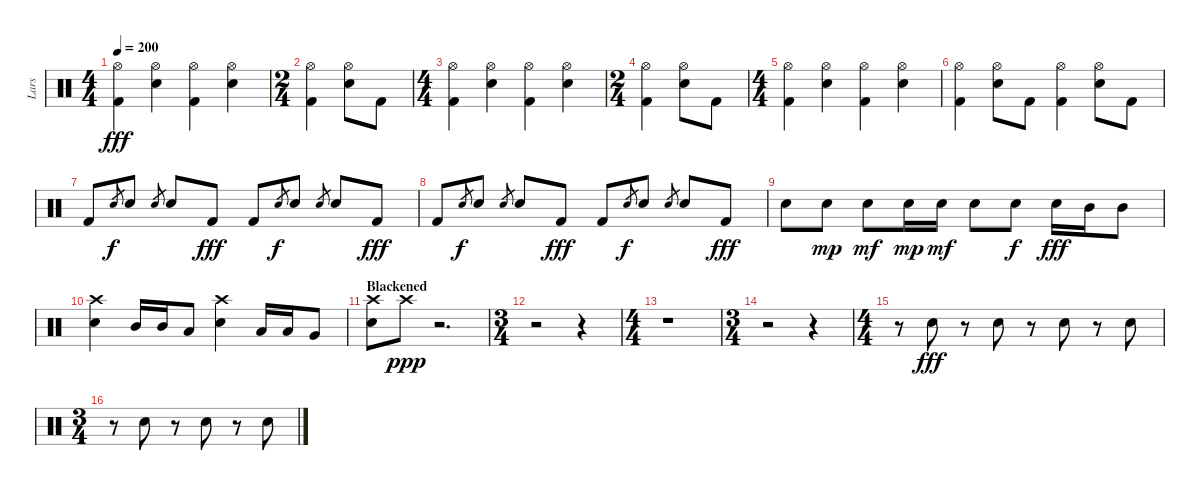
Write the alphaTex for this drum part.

\track ("Lars" "Lars") {instrument percussion}
\staff {score}
\articulation defaults
\ts (4 4)
\tempo 200
\clef neutral
\ks c
("Hi-Hat (open)" "Kick (hit) 2").4{dy fff} ("Hi-Hat (open)" "Snare (hit) 2").4 ("Hi-Hat (open)" "Kick (hit) 2").4 ("Hi-Hat (open)" "Snare (hit) 2").4 |
\ts (2 4)
("Hi-Hat (open)" "Kick (hit) 2").4 ("Hi-Hat (open)" "Snare (hit) 2").8 "Kick (hit) 2".8 |
\ts (4 4)
("Hi-Hat (open)" "Kick (hit) 2").4 ("Hi-Hat (open)" "Snare (hit) 2").4 ("Hi-Hat (open)" "Kick (hit) 2").4 ("Hi-Hat (open)" "Snare (hit) 2").4 |
\ts (2 4)
("Hi-Hat (open)" "Kick (hit) 2").4 ("Hi-Hat (open)" "Snare (hit) 2").8 "Kick (hit) 2".8 |
\ts (4 4)
("Hi-Hat (open)" "Kick (hit) 2").4 ("Hi-Hat (open)" "Snare (hit) 2").4 ("Hi-Hat (open)" "Kick (hit) 2").4 ("Hi-Hat (open)" "Snare (hit) 2").4 |
("Hi-Hat (open)" "Kick (hit) 2").4 ("Hi-Hat (open)" "Snare (hit) 2").8 "Kick (hit) 2".8 ("Hi-Hat (open)" "Kick (hit) 2").4 ("Hi-Hat (open)" "Snare (hit) 2").8 "Kick (hit) 2".8 |
"Kick (hit) 2".8 "Snare (hit) 2".8{gr dy f} "Snare (hit) 2".8 "Snare (hit) 2".8{gr} "Snare (hit) 2".8 "Kick (hit) 2".8{dy fff} "Kick (hit) 2".8 "Snare (hit) 2".8{gr dy f} "Snare (hit) 2".8 "Snare (hit) 2".8{gr} "Snare (hit) 2".8 "Kick (hit) 2".8{dy fff} |
"Kick (hit) 2".8 "Snare (hit) 2".8{gr dy f} "Snare (hit) 2".8 "Snare (hit) 2".8{gr} "Snare (hit) 2".8 "Kick (hit) 2".8{dy fff} "Kick (hit) 2".8 "Snare (hit) 2".8{gr dy f} "Snare (hit) 2".8 "Snare (hit) 2".8{gr} "Snare (hit) 2".8 "Kick (hit) 2".8{dy fff} |
"Snare (hit) 2".8 "Snare (hit) 2".8{dy mp} "Snare (hit) 2".8{dy mf} "Snare (hit) 2".16{dy mp} "Snare (hit) 2".16{dy mf} "Snare (hit) 2".8 "Snare (hit) 2".8{dy f} "Snare (hit) 2".16{dy fff} "Mid Tom (hit)".16 "Mid Tom (hit)".8 |
("Crash high (hit)" "Snare (hit) 2").4 "Mid Tom (hit)".16 "Mid Tom (hit)".16 "Low Tom (hit)".8 ("Crash high (hit)" "Snare (hit) 2").4 "Low Tom (hit)".16 "Low Tom (hit)".16 "Very Low Tom (hit)".8 |
\section ("" "Blackened")
("Crash high (hit)" "Snare (hit) 2").8 "Crash high (hit)".8{dy ppp} r.2{d} |
\ts (3 4)
r.2 r.4 |
\ts (4 4)
r.1 |
\ts (3 4)
r.2 r.4 |
\ts (4 4)
r.8 "Snare (hit) 2".8{dy fff} r.8 "Snare (hit) 2".8 r.8 "Snare (hit) 2".8 r.8 "Snare (hit) 2".8 |
\ts (3 4)
r.8 "Snare (hit) 2".8 r.8 "Snare (hit) 2".8 r.8 "Snare (hit) 2".8
